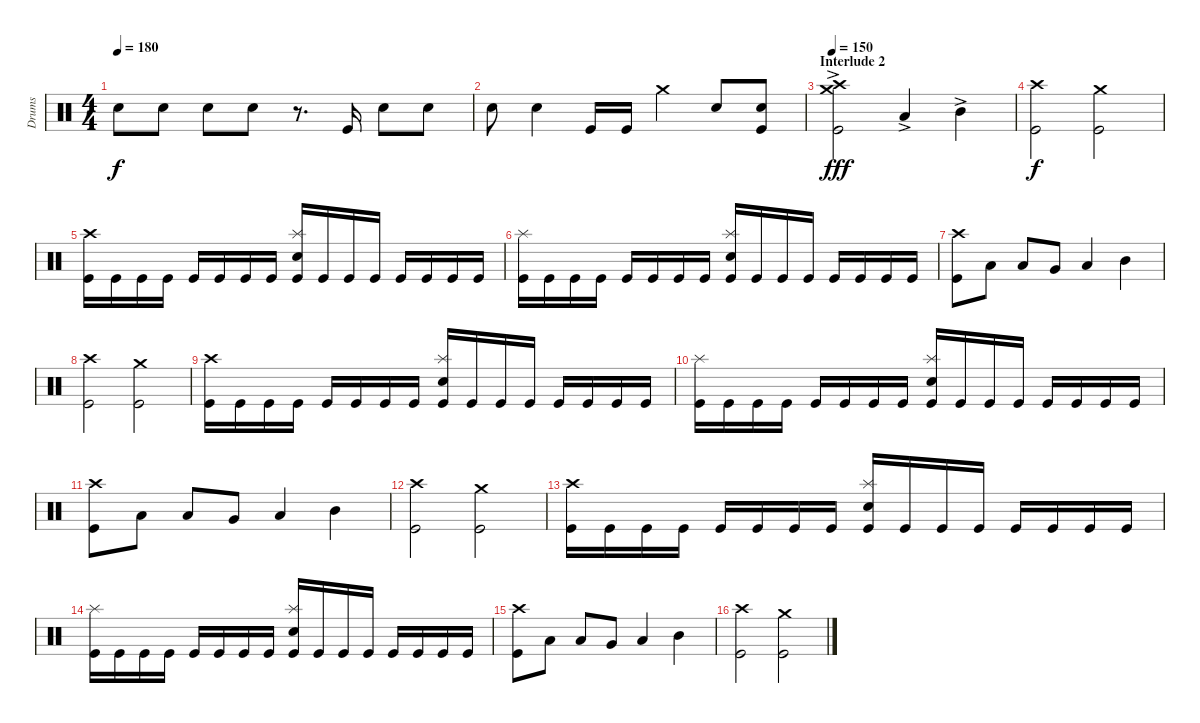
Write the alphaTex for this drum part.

\track ("Drums" "Drums") {instrument percussion}
\staff {score}
\articulation defaults
\ts (4 4)
\tempo 180
\clef neutral
\ks c "Electric Snare (hit)".8{dy f} "Electric Snare (hit)".8 "Electric Snare (hit)".8 "Electric Snare (hit)".8
r.8{d} "Kick (hit)".16 "Electric Snare (hit)".8 "Electric Snare (hit)".8 |
"Electric Snare (hit)".8 "Electric Snare (hit)".4 "Kick (hit)".16 "Kick (hit)".16 "Crash medium (hit)".4 "Electric Snare (hit)".8 ("Electric Snare (hit)" "Kick (hit)").8 |
\section ("" "Interlude 2")
\tempo 150
("Crash high (hit)"{ac} "Crash medium (hit)"{ac} "Kick (hit)").2{dy fff} "Low Tom (hit)"{ac}.4 "Mid Tom (hit)"{ac}.4 |
("Crash high (hit)" "Kick (hit)").2{dy f} ("Crash medium (hit)" "Kick (hit)").2 |
("Crash high (hit)" "Kick (hit)").16 "Kick (hit)".16 "Kick (hit)".16 "Kick (hit)".16 "Kick (hit)".16 "Kick (hit)".16 "Kick (hit)".16 "Kick (hit)".16 ("Splash (hit)" "Snare (hit) 2" "Kick (hit)").16 "Kick (hit)".16 "Kick (hit)".16 "Kick (hit)".16 "Kick (hit)".16 "Kick (hit)".16 "Kick (hit)".16 "Kick (hit)".16 |
("Splash (hit)" "Kick (hit)").16 "Kick (hit)".16 "Kick (hit)".16 "Kick (hit)".16 "Kick (hit)".16 "Kick (hit)".16 "Kick (hit)".16 "Kick (hit)".16 ("Splash (hit)" "Snare (hit) 2" "Kick (hit)").16 "Kick (hit)".16 "Kick (hit)".16 "Kick (hit)".16 "Kick (hit)".16 "Kick (hit)".16 "Kick (hit)".16 "Kick (hit)".16 |
("Crash high (hit)" "Kick (hit)").8 "Low Tom (hit)".8 "Low Floor Tom (hit)".8 "Very Low Tom (hit)".8 "Low Tom (hit)".4 "Mid Tom (hit)".4 |
("Crash high (hit)" "Kick (hit)").2 ("Crash medium (hit)" "Kick (hit)").2 |
("Crash high (hit)" "Kick (hit)").16 "Kick (hit)".16 "Kick (hit)".16 "Kick (hit)".16 "Kick (hit)".16 "Kick (hit)".16 "Kick (hit)".16 "Kick (hit)".16 ("Splash (hit)" "Snare (hit) 2" "Kick (hit)").16 "Kick (hit)".16 "Kick (hit)".16 "Kick (hit)".16 "Kick (hit)".16 "Kick (hit)".16 "Kick (hit)".16 "Kick (hit)".16 |
("Splash (hit)" "Kick (hit)").16 "Kick (hit)".16 "Kick (hit)".16 "Kick (hit)".16 "Kick (hit)".16 "Kick (hit)".16 "Kick (hit)".16 "Kick (hit)".16 ("Splash (hit)" "Snare (hit) 2" "Kick (hit)").16 "Kick (hit)".16 "Kick (hit)".16 "Kick (hit)".16 "Kick (hit)".16 "Kick (hit)".16 "Kick (hit)".16 "Kick (hit)".16 |
("Crash high (hit)" "Kick (hit)").8 "Low Tom (hit)".8 "Low Floor Tom (hit)".8 "Very Low Tom (hit)".8 "Low Tom (hit)".4 "Mid Tom (hit)".4 |
("Crash high (hit)" "Kick (hit)").2 ("Crash medium (hit)" "Kick (hit)").2 |
("Crash high (hit)" "Kick (hit)").16 "Kick (hit)".16 "Kick (hit)".16 "Kick (hit)".16 "Kick (hit)".16 "Kick (hit)".16 "Kick (hit)".16 "Kick (hit)".16 ("Splash (hit)" "Snare (hit) 2" "Kick (hit)").16 "Kick (hit)".16 "Kick (hit)".16 "Kick (hit)".16 "Kick (hit)".16 "Kick (hit)".16 "Kick (hit)".16 "Kick (hit)".16 |
("Splash (hit)" "Kick (hit)").16 "Kick (hit)".16 "Kick (hit)".16 "Kick (hit)".16 "Kick (hit)".16 "Kick (hit)".16 "Kick (hit)".16 "Kick (hit)".16 ("Splash (hit)" "Snare (hit) 2" "Kick (hit)").16 "Kick (hit)".16 "Kick (hit)".16 "Kick (hit)".16 "Kick (hit)".16 "Kick (hit)".16 "Kick (hit)".16 "Kick (hit)".16 |
("Crash high (hit)" "Kick (hit)").8 "Low Tom (hit)".8 "Low Floor Tom (hit)".8 "Very Low Tom (hit)".8 "Low Tom (hit)".4 "Mid Tom (hit)".4 |
("Crash high (hit)" "Kick (hit)").2 ("Crash medium (hit)" "Kick (hit)").2
